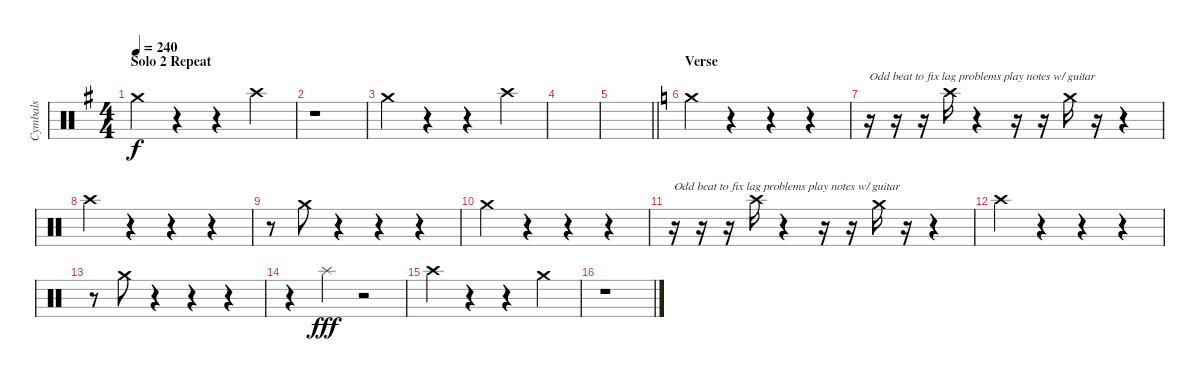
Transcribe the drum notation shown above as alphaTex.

\track ("Cymbals" "Cymbals") {instrument percussion}
\staff {score}
\articulation defaults
\ts (4 4)
\section ("" "Solo 2 Repeat")
\tempo 240
\clef neutral
\ks g "Crash medium (hit)".4{dy f}
r.4 r.4 "Crash high (hit)".4 |
r.1 |
"Crash medium (hit)".4 r.4 r.4 "Crash high (hit)".4 |
|
\barLineRight lightlight
|
\section ("" "Verse")
\ks c "Crash medium (hit)".4
r.4 r.4 r.4 |
r.16{txt "Odd beat to fix lag problems play notes w/ guitar"} r.16 r.16 "Crash high (hit)".16 r.4 r.16 r.16 "Crash medium (hit)".16 r.16 r.4 |
"Crash high (hit)".4 r.4 r.4 r.4 |
r.8 "Crash medium (hit)".8 r.4 r.4 r.4 |
"Crash medium (hit)".4 r.4 r.4 r.4 |
r.16{txt "Odd beat to fix lag problems play notes w/ guitar"} r.16 r.16 "Crash high (hit)".16 r.4 r.16 r.16 "Crash medium (hit)".16 r.16 r.4 |
"Crash high (hit)".4 r.4 r.4 r.4 |
r.8 "Crash medium (hit)".8 r.4 r.4 r.4 |
r.4 "Splash (hit)".4{dy fff} r.2 |
"Crash high (hit)".4 r.4 r.4 "Crash medium (hit)".4 |
r.1
